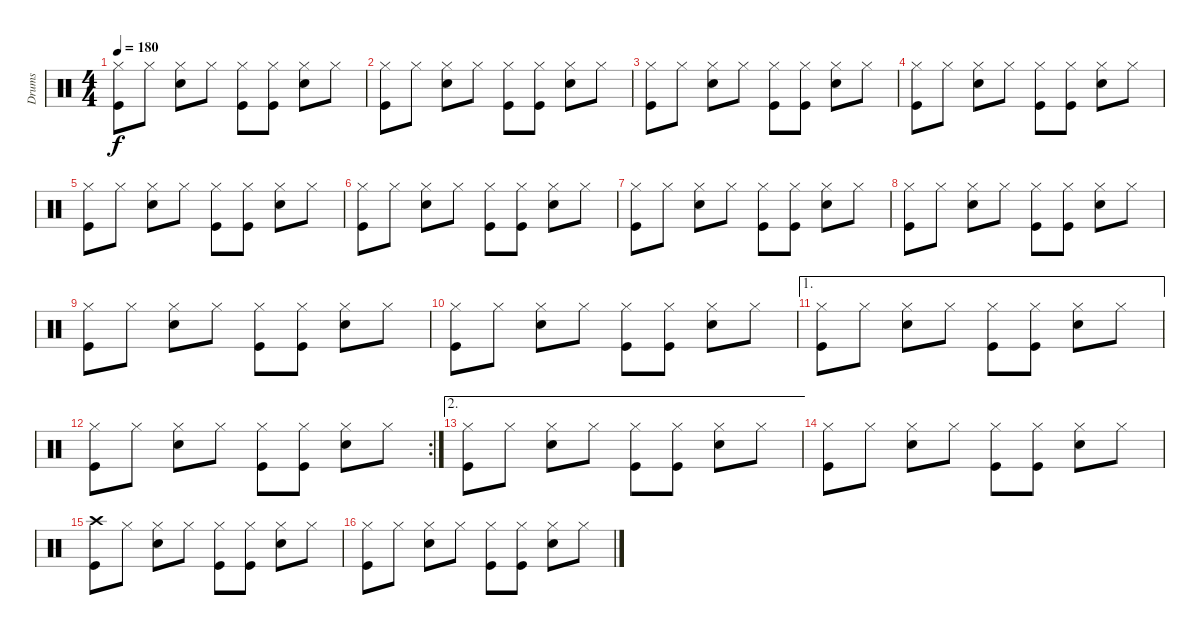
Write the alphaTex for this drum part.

\track ("Drums" "Drums") {instrument percussion}
\staff {score}
\articulation defaults
\ts (4 4)
\tempo 180
\clef neutral
\ks c
("Hi-Hat (closed)" "Kick (hit)").8{dy f} "Hi-Hat (closed)".8 ("Hi-Hat (closed)" "Electric Snare (hit)").8 "Hi-Hat (closed)".8 ("Kick (hit)" "Hi-Hat (closed)").8 ("Hi-Hat (closed)" "Kick (hit)").8 ("Hi-Hat (closed)" "Electric Snare (hit)").8 "Hi-Hat (closed)".8 |
("Hi-Hat (closed)" "Kick (hit)").8 "Hi-Hat (closed)".8 ("Hi-Hat (closed)" "Electric Snare (hit)").8 "Hi-Hat (closed)".8 ("Kick (hit)" "Hi-Hat (closed)").8 ("Hi-Hat (closed)" "Kick (hit)").8 ("Hi-Hat (closed)" "Electric Snare (hit)").8 "Hi-Hat (closed)".8 |
("Hi-Hat (closed)" "Kick (hit)").8 "Hi-Hat (closed)".8 ("Hi-Hat (closed)" "Electric Snare (hit)").8 "Hi-Hat (closed)".8 ("Kick (hit)" "Hi-Hat (closed)").8 ("Hi-Hat (closed)" "Kick (hit)").8 ("Hi-Hat (closed)" "Electric Snare (hit)").8 "Hi-Hat (closed)".8 |
("Hi-Hat (closed)" "Kick (hit)").8 "Hi-Hat (closed)".8 ("Hi-Hat (closed)" "Electric Snare (hit)").8 "Hi-Hat (closed)".8 ("Kick (hit)" "Hi-Hat (closed)").8 ("Hi-Hat (closed)" "Kick (hit)").8 ("Hi-Hat (closed)" "Electric Snare (hit)").8 "Hi-Hat (closed)".8 |
("Hi-Hat (closed)" "Kick (hit)").8 "Hi-Hat (closed)".8 ("Hi-Hat (closed)" "Electric Snare (hit)").8 "Hi-Hat (closed)".8 ("Kick (hit)" "Hi-Hat (closed)").8 ("Hi-Hat (closed)" "Kick (hit)").8 ("Hi-Hat (closed)" "Electric Snare (hit)").8 "Hi-Hat (closed)".8 |
("Hi-Hat (closed)" "Kick (hit)").8 "Hi-Hat (closed)".8 ("Hi-Hat (closed)" "Electric Snare (hit)").8 "Hi-Hat (closed)".8 ("Kick (hit)" "Hi-Hat (closed)").8 ("Hi-Hat (closed)" "Kick (hit)").8 ("Hi-Hat (closed)" "Electric Snare (hit)").8 "Hi-Hat (closed)".8 |
("Hi-Hat (closed)" "Kick (hit)").8 "Hi-Hat (closed)".8 ("Hi-Hat (closed)" "Electric Snare (hit)").8 "Hi-Hat (closed)".8 ("Kick (hit)" "Hi-Hat (closed)").8 ("Hi-Hat (closed)" "Kick (hit)").8 ("Hi-Hat (closed)" "Electric Snare (hit)").8 "Hi-Hat (closed)".8 |
("Hi-Hat (closed)" "Kick (hit)").8 "Hi-Hat (closed)".8 ("Hi-Hat (closed)" "Electric Snare (hit)").8 "Hi-Hat (closed)".8 ("Kick (hit)" "Hi-Hat (closed)").8 ("Hi-Hat (closed)" "Kick (hit)").8 ("Hi-Hat (closed)" "Electric Snare (hit)").8 "Hi-Hat (closed)".8 |
("Hi-Hat (closed)" "Kick (hit)").8 "Hi-Hat (closed)".8 ("Hi-Hat (closed)" "Electric Snare (hit)").8 "Hi-Hat (closed)".8 ("Kick (hit)" "Hi-Hat (closed)").8 ("Hi-Hat (closed)" "Kick (hit)").8 ("Hi-Hat (closed)" "Electric Snare (hit)").8 "Hi-Hat (closed)".8 |
("Hi-Hat (closed)" "Kick (hit)").8 "Hi-Hat (closed)".8 ("Hi-Hat (closed)" "Electric Snare (hit)").8 "Hi-Hat (closed)".8 ("Kick (hit)" "Hi-Hat (closed)").8 ("Hi-Hat (closed)" "Kick (hit)").8 ("Hi-Hat (closed)" "Electric Snare (hit)").8 "Hi-Hat (closed)".8 |
\ae 1
("Hi-Hat (closed)" "Kick (hit)").8 "Hi-Hat (closed)".8 ("Hi-Hat (closed)" "Electric Snare (hit)").8 "Hi-Hat (closed)".8 ("Kick (hit)" "Hi-Hat (closed)").8 ("Hi-Hat (closed)" "Kick (hit)").8 ("Hi-Hat (closed)" "Electric Snare (hit)").8 "Hi-Hat (closed)".8 |
\rc 2
("Hi-Hat (closed)" "Kick (hit)").8 "Hi-Hat (closed)".8 ("Hi-Hat (closed)" "Electric Snare (hit)").8 "Hi-Hat (closed)".8 ("Kick (hit)" "Hi-Hat (closed)").8 ("Hi-Hat (closed)" "Kick (hit)").8 ("Hi-Hat (closed)" "Electric Snare (hit)").8 "Hi-Hat (closed)".8 |
\ae 2
("Hi-Hat (closed)" "Kick (hit)").8 "Hi-Hat (closed)".8 ("Hi-Hat (closed)" "Electric Snare (hit)").8 "Hi-Hat (closed)".8 ("Kick (hit)" "Hi-Hat (closed)").8 ("Hi-Hat (closed)" "Kick (hit)").8 ("Hi-Hat (closed)" "Electric Snare (hit)").8 "Hi-Hat (closed)".8 |
("Hi-Hat (closed)" "Kick (hit)").8 "Hi-Hat (closed)".8 ("Hi-Hat (closed)" "Electric Snare (hit)").8 "Hi-Hat (closed)".8 ("Kick (hit)" "Hi-Hat (closed)").8 ("Hi-Hat (closed)" "Kick (hit)").8 ("Hi-Hat (closed)" "Electric Snare (hit)").8 "Hi-Hat (closed)".8 |
("Kick (hit)" "Crash high (hit)").8 "Hi-Hat (closed)".8 ("Hi-Hat (closed)" "Electric Snare (hit)").8 "Hi-Hat (closed)".8 ("Kick (hit)" "Hi-Hat (closed)").8 ("Hi-Hat (closed)" "Kick (hit)").8 ("Hi-Hat (closed)" "Electric Snare (hit)").8 "Hi-Hat (closed)".8 |
("Hi-Hat (closed)" "Kick (hit)").8 "Hi-Hat (closed)".8 ("Hi-Hat (closed)" "Electric Snare (hit)").8 "Hi-Hat (closed)".8 ("Kick (hit)" "Hi-Hat (closed)").8 ("Hi-Hat (closed)" "Kick (hit)").8 ("Hi-Hat (closed)" "Electric Snare (hit)").8 "Hi-Hat (closed)".8
